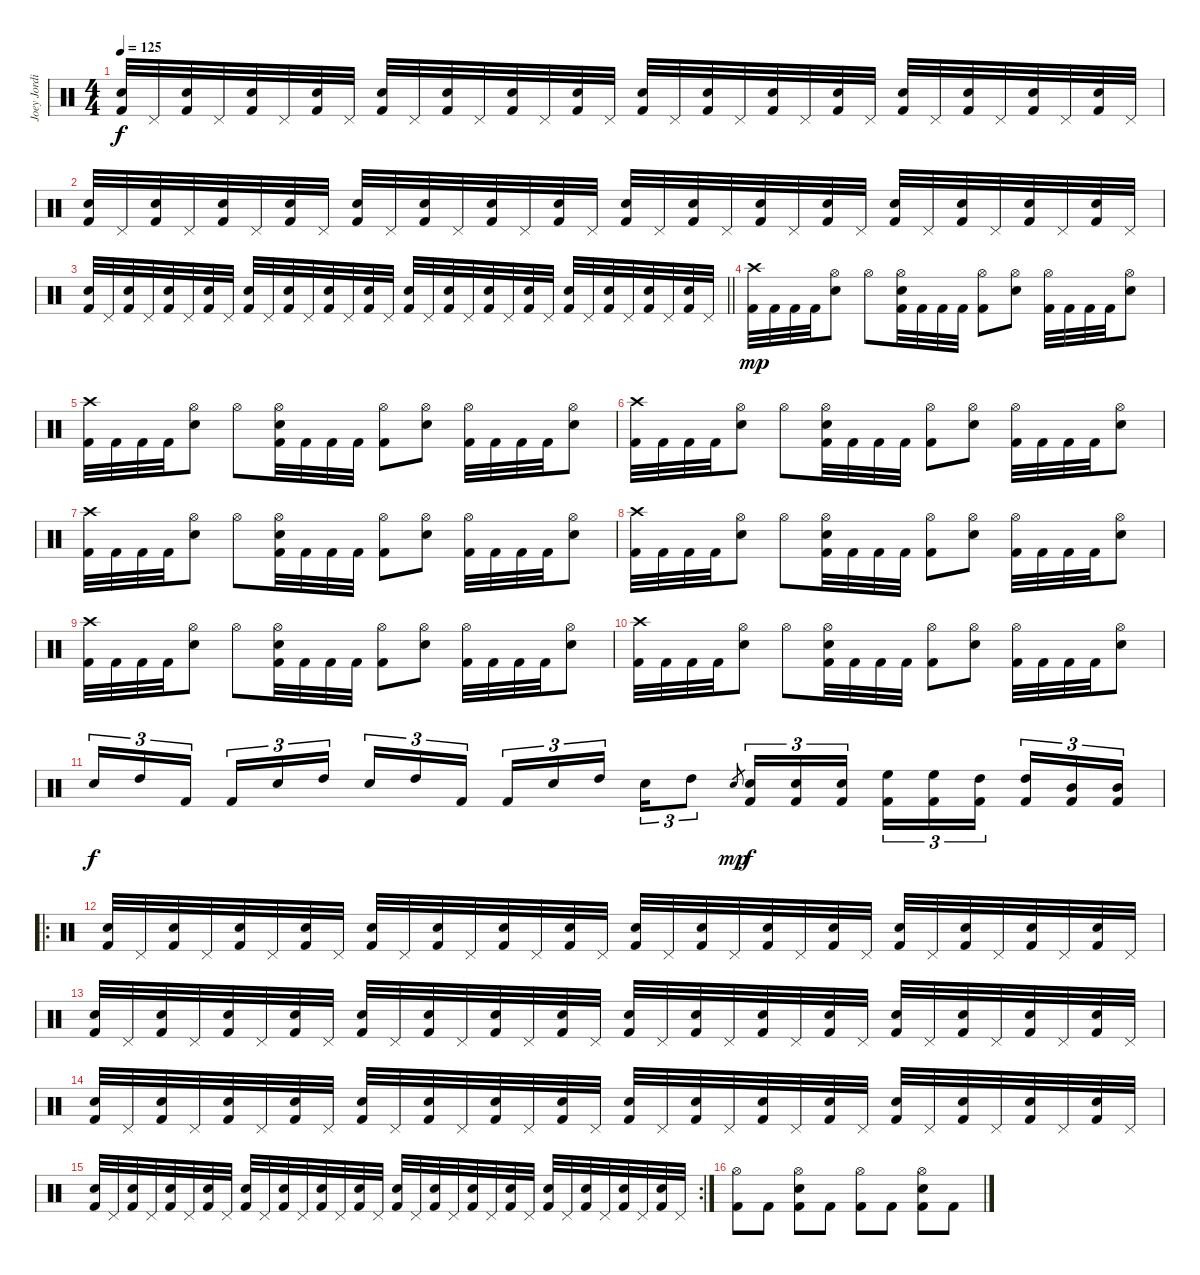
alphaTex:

\track ("Joey Jordison" "Joey Jordi") {instrument percussion}
\staff {score}
\articulation defaults
\ts (4 4)
\tempo 125
\clef neutral
\ks c
("Electric Snare (hit)" "Kick (hit) 2").32{dy f} "Pedal Hi-Hat (hit)".32 ("Electric Snare (hit)" "Kick (hit) 2").32 "Pedal Hi-Hat (hit)".32 ("Electric Snare (hit)" "Kick (hit) 2").32 "Pedal Hi-Hat (hit)".32 ("Electric Snare (hit)" "Kick (hit) 2").32 "Pedal Hi-Hat (hit)".32 ("Electric Snare (hit)" "Kick (hit) 2").32 "Pedal Hi-Hat (hit)".32 ("Electric Snare (hit)" "Kick (hit) 2").32 "Pedal Hi-Hat (hit)".32 ("Electric Snare (hit)" "Kick (hit) 2").32 "Pedal Hi-Hat (hit)".32 ("Electric Snare (hit)" "Kick (hit) 2").32 "Pedal Hi-Hat (hit)".32 ("Electric Snare (hit)" "Kick (hit) 2").32 "Pedal Hi-Hat (hit)".32 ("Electric Snare (hit)" "Kick (hit) 2").32 "Pedal Hi-Hat (hit)".32 ("Electric Snare (hit)" "Kick (hit) 2").32 "Pedal Hi-Hat (hit)".32 ("Electric Snare (hit)" "Kick (hit) 2").32 "Pedal Hi-Hat (hit)".32 ("Electric Snare (hit)" "Kick (hit) 2").32 "Pedal Hi-Hat (hit)".32 ("Electric Snare (hit)" "Kick (hit) 2").32 "Pedal Hi-Hat (hit)".32 ("Electric Snare (hit)" "Kick (hit) 2").32 "Pedal Hi-Hat (hit)".32 ("Electric Snare (hit)" "Kick (hit) 2").32 "Pedal Hi-Hat (hit)".32 |
("Electric Snare (hit)" "Kick (hit) 2").32 "Pedal Hi-Hat (hit)".32 ("Electric Snare (hit)" "Kick (hit) 2").32 "Pedal Hi-Hat (hit)".32 ("Electric Snare (hit)" "Kick (hit) 2").32 "Pedal Hi-Hat (hit)".32 ("Electric Snare (hit)" "Kick (hit) 2").32 "Pedal Hi-Hat (hit)".32 ("Electric Snare (hit)" "Kick (hit) 2").32 "Pedal Hi-Hat (hit)".32 ("Electric Snare (hit)" "Kick (hit) 2").32 "Pedal Hi-Hat (hit)".32 ("Electric Snare (hit)" "Kick (hit) 2").32 "Pedal Hi-Hat (hit)".32 ("Electric Snare (hit)" "Kick (hit) 2").32 "Pedal Hi-Hat (hit)".32 ("Electric Snare (hit)" "Kick (hit) 2").32 "Pedal Hi-Hat (hit)".32 ("Electric Snare (hit)" "Kick (hit) 2").32 "Pedal Hi-Hat (hit)".32 ("Electric Snare (hit)" "Kick (hit) 2").32 "Pedal Hi-Hat (hit)".32 ("Electric Snare (hit)" "Kick (hit) 2").32 "Pedal Hi-Hat (hit)".32 ("Electric Snare (hit)" "Kick (hit) 2").32 "Pedal Hi-Hat (hit)".32 ("Electric Snare (hit)" "Kick (hit) 2").32 "Pedal Hi-Hat (hit)".32 ("Electric Snare (hit)" "Kick (hit) 2").32 "Pedal Hi-Hat (hit)".32 ("Electric Snare (hit)" "Kick (hit) 2").32 "Pedal Hi-Hat (hit)".32 |
\barLineRight lightlight
("Electric Snare (hit)" "Kick (hit) 2").32 "Pedal Hi-Hat (hit)".32 ("Electric Snare (hit)" "Kick (hit) 2").32 "Pedal Hi-Hat (hit)".32 ("Electric Snare (hit)" "Kick (hit) 2").32 "Pedal Hi-Hat (hit)".32 ("Electric Snare (hit)" "Kick (hit) 2").32 "Pedal Hi-Hat (hit)".32 ("Electric Snare (hit)" "Kick (hit) 2").32 "Pedal Hi-Hat (hit)".32 ("Electric Snare (hit)" "Kick (hit) 2").32 "Pedal Hi-Hat (hit)".32 ("Electric Snare (hit)" "Kick (hit) 2").32 "Pedal Hi-Hat (hit)".32 ("Electric Snare (hit)" "Kick (hit) 2").32 "Pedal Hi-Hat (hit)".32 ("Electric Snare (hit)" "Kick (hit) 2").32 "Pedal Hi-Hat (hit)".32 ("Electric Snare (hit)" "Kick (hit) 2").32 "Pedal Hi-Hat (hit)".32 ("Electric Snare (hit)" "Kick (hit) 2").32 "Pedal Hi-Hat (hit)".32 ("Electric Snare (hit)" "Kick (hit) 2").32 "Pedal Hi-Hat (hit)".32 ("Electric Snare (hit)" "Kick (hit) 2").32 "Pedal Hi-Hat (hit)".32 ("Electric Snare (hit)" "Kick (hit) 2").32 "Pedal Hi-Hat (hit)".32 ("Electric Snare (hit)" "Kick (hit) 2").32 "Pedal Hi-Hat (hit)".32 ("Electric Snare (hit)" "Kick (hit) 2").32 "Pedal Hi-Hat (hit)".32 |
("Crash high (hit)" "Kick (hit) 2").32{dy mp} "Kick (hit) 2".32 "Kick (hit) 2".32 "Kick (hit) 2".32 ("Hi-Hat (open)" "Electric Snare (hit)").8 "Hi-Hat (open)".8 ("Hi-Hat (open)" "Electric Snare (hit)" "Kick (hit) 2").32 "Kick (hit) 2".32 "Kick (hit) 2".32 "Kick (hit) 2".32 ("Hi-Hat (open)" "Kick (hit) 2").8 ("Hi-Hat (open)" "Electric Snare (hit)").8 ("Hi-Hat (open)" "Kick (hit) 2").32 "Kick (hit) 2".32 "Kick (hit) 2".32 "Kick (hit) 2".32 ("Hi-Hat (open)" "Electric Snare (hit)").8 |
("Crash high (hit)" "Kick (hit) 2").32 "Kick (hit) 2".32 "Kick (hit) 2".32 "Kick (hit) 2".32 ("Hi-Hat (open)" "Electric Snare (hit)").8 "Hi-Hat (open)".8 ("Hi-Hat (open)" "Electric Snare (hit)" "Kick (hit) 2").32 "Kick (hit) 2".32 "Kick (hit) 2".32 "Kick (hit) 2".32 ("Hi-Hat (open)" "Kick (hit) 2").8 ("Hi-Hat (open)" "Electric Snare (hit)").8 ("Hi-Hat (open)" "Kick (hit) 2").32 "Kick (hit) 2".32 "Kick (hit) 2".32 "Kick (hit) 2".32 ("Hi-Hat (open)" "Electric Snare (hit)").8 |
("Crash high (hit)" "Kick (hit) 2").32 "Kick (hit) 2".32 "Kick (hit) 2".32 "Kick (hit) 2".32 ("Hi-Hat (open)" "Electric Snare (hit)").8 "Hi-Hat (open)".8 ("Hi-Hat (open)" "Electric Snare (hit)" "Kick (hit) 2").32 "Kick (hit) 2".32 "Kick (hit) 2".32 "Kick (hit) 2".32 ("Hi-Hat (open)" "Kick (hit) 2").8 ("Hi-Hat (open)" "Electric Snare (hit)").8 ("Hi-Hat (open)" "Kick (hit) 2").32 "Kick (hit) 2".32 "Kick (hit) 2".32 "Kick (hit) 2".32 ("Hi-Hat (open)" "Electric Snare (hit)").8 |
("Crash high (hit)" "Kick (hit) 2").32 "Kick (hit) 2".32 "Kick (hit) 2".32 "Kick (hit) 2".32 ("Hi-Hat (open)" "Electric Snare (hit)").8 "Hi-Hat (open)".8 ("Hi-Hat (open)" "Electric Snare (hit)" "Kick (hit) 2").32 "Kick (hit) 2".32 "Kick (hit) 2".32 "Kick (hit) 2".32 ("Hi-Hat (open)" "Kick (hit) 2").8 ("Hi-Hat (open)" "Electric Snare (hit)").8 ("Hi-Hat (open)" "Kick (hit) 2").32 "Kick (hit) 2".32 "Kick (hit) 2".32 "Kick (hit) 2".32 ("Hi-Hat (open)" "Electric Snare (hit)").8 |
("Crash high (hit)" "Kick (hit) 2").32 "Kick (hit) 2".32 "Kick (hit) 2".32 "Kick (hit) 2".32 ("Hi-Hat (open)" "Electric Snare (hit)").8 "Hi-Hat (open)".8 ("Hi-Hat (open)" "Electric Snare (hit)" "Kick (hit) 2").32 "Kick (hit) 2".32 "Kick (hit) 2".32 "Kick (hit) 2".32 ("Hi-Hat (open)" "Kick (hit) 2").8 ("Hi-Hat (open)" "Electric Snare (hit)").8 ("Hi-Hat (open)" "Kick (hit) 2").32 "Kick (hit) 2".32 "Kick (hit) 2".32 "Kick (hit) 2".32 ("Hi-Hat (open)" "Electric Snare (hit)").8 |
("Crash high (hit)" "Kick (hit) 2").32 "Kick (hit) 2".32 "Kick (hit) 2".32 "Kick (hit) 2".32 ("Hi-Hat (open)" "Electric Snare (hit)").8 "Hi-Hat (open)".8 ("Hi-Hat (open)" "Electric Snare (hit)" "Kick (hit) 2").32 "Kick (hit) 2".32 "Kick (hit) 2".32 "Kick (hit) 2".32 ("Hi-Hat (open)" "Kick (hit) 2").8 ("Hi-Hat (open)" "Electric Snare (hit)").8 ("Hi-Hat (open)" "Kick (hit) 2").32 "Kick (hit) 2".32 "Kick (hit) 2".32 "Kick (hit) 2".32 ("Hi-Hat (open)" "Electric Snare (hit)").8 |
("Crash high (hit)" "Kick (hit) 2").32 "Kick (hit) 2".32 "Kick (hit) 2".32 "Kick (hit) 2".32 ("Hi-Hat (open)" "Electric Snare (hit)").8 "Hi-Hat (open)".8 ("Hi-Hat (open)" "Electric Snare (hit)" "Kick (hit) 2").32 "Kick (hit) 2".32 "Kick (hit) 2".32 "Kick (hit) 2".32 ("Hi-Hat (open)" "Kick (hit) 2").8 ("Hi-Hat (open)" "Electric Snare (hit)").8 ("Hi-Hat (open)" "Kick (hit) 2").32 "Kick (hit) 2".32 "Kick (hit) 2".32 "Kick (hit) 2".32 ("Hi-Hat (open)" "Electric Snare (hit)").8 |
"Electric Snare (hit)".16{tu (3 2) dy f} "High Tom (hit)".16{tu (3 2)} "Kick (hit) 2".16{tu (3 2) beam splitsecondary} "Kick (hit) 2".16{tu (3 2)} "Electric Snare (hit)".16{tu (3 2)} "High Tom (hit)".16{tu (3 2)} "Electric Snare (hit)".16{tu (3 2)} "High Tom (hit)".16{tu (3 2)} "Kick (hit) 2".16{tu (3 2) beam splitsecondary} "Kick (hit) 2".16{tu (3 2)} "Electric Snare (hit)".16{tu (3 2)} "High Tom (hit)".16{tu (3 2)} "Electric Snare (hit)".16{tu (3 2)} "High Tom (hit)".8{tu (3 2)} "Electric Snare (hit)".8{gr dy mp} ("Electric Snare (hit)" "Kick (hit) 2").16{tu (3 2) dy f} ("Electric Snare (hit)" "Kick (hit) 2").16{tu (3 2)} ("Electric Snare (hit)" "Kick (hit) 2").16{tu (3 2)} ("High Floor Tom (hit)" "Kick (hit) 2").16{tu (3 2)} ("High Floor Tom (hit)" "Kick (hit) 2").16{tu (3 2)} ("High Tom (hit)" "Kick (hit) 2").16{tu (3 2) beam splitsecondary} ("High Tom (hit)" "Kick (hit) 2").16{tu (3 2)} ("Mid Tom (hit)" "Kick (hit) 2").16{tu (3 2)} ("Mid Tom (hit)" "Kick (hit) 2").16{tu (3 2)} |
\ro
("Electric Snare (hit)" "Kick (hit) 2").32 "Pedal Hi-Hat (hit)".32 ("Electric Snare (hit)" "Kick (hit) 2").32 "Pedal Hi-Hat (hit)".32 ("Electric Snare (hit)" "Kick (hit) 2").32 "Pedal Hi-Hat (hit)".32 ("Electric Snare (hit)" "Kick (hit) 2").32 "Pedal Hi-Hat (hit)".32 ("Electric Snare (hit)" "Kick (hit) 2").32 "Pedal Hi-Hat (hit)".32 ("Electric Snare (hit)" "Kick (hit) 2").32 "Pedal Hi-Hat (hit)".32 ("Electric Snare (hit)" "Kick (hit) 2").32 "Pedal Hi-Hat (hit)".32 ("Electric Snare (hit)" "Kick (hit) 2").32 "Pedal Hi-Hat (hit)".32 ("Electric Snare (hit)" "Kick (hit) 2").32 "Pedal Hi-Hat (hit)".32 ("Electric Snare (hit)" "Kick (hit) 2").32 "Pedal Hi-Hat (hit)".32 ("Electric Snare (hit)" "Kick (hit) 2").32 "Pedal Hi-Hat (hit)".32 ("Electric Snare (hit)" "Kick (hit) 2").32 "Pedal Hi-Hat (hit)".32 ("Electric Snare (hit)" "Kick (hit) 2").32 "Pedal Hi-Hat (hit)".32 ("Electric Snare (hit)" "Kick (hit) 2").32 "Pedal Hi-Hat (hit)".32 ("Electric Snare (hit)" "Kick (hit) 2").32 "Pedal Hi-Hat (hit)".32 ("Electric Snare (hit)" "Kick (hit) 2").32 "Pedal Hi-Hat (hit)".32 |
("Electric Snare (hit)" "Kick (hit) 2").32 "Pedal Hi-Hat (hit)".32 ("Electric Snare (hit)" "Kick (hit) 2").32 "Pedal Hi-Hat (hit)".32 ("Electric Snare (hit)" "Kick (hit) 2").32 "Pedal Hi-Hat (hit)".32 ("Electric Snare (hit)" "Kick (hit) 2").32 "Pedal Hi-Hat (hit)".32 ("Electric Snare (hit)" "Kick (hit) 2").32 "Pedal Hi-Hat (hit)".32 ("Electric Snare (hit)" "Kick (hit) 2").32 "Pedal Hi-Hat (hit)".32 ("Electric Snare (hit)" "Kick (hit) 2").32 "Pedal Hi-Hat (hit)".32 ("Electric Snare (hit)" "Kick (hit) 2").32 "Pedal Hi-Hat (hit)".32 ("Electric Snare (hit)" "Kick (hit) 2").32 "Pedal Hi-Hat (hit)".32 ("Electric Snare (hit)" "Kick (hit) 2").32 "Pedal Hi-Hat (hit)".32 ("Electric Snare (hit)" "Kick (hit) 2").32 "Pedal Hi-Hat (hit)".32 ("Electric Snare (hit)" "Kick (hit) 2").32 "Pedal Hi-Hat (hit)".32 ("Electric Snare (hit)" "Kick (hit) 2").32 "Pedal Hi-Hat (hit)".32 ("Electric Snare (hit)" "Kick (hit) 2").32 "Pedal Hi-Hat (hit)".32 ("Electric Snare (hit)" "Kick (hit) 2").32 "Pedal Hi-Hat (hit)".32 ("Electric Snare (hit)" "Kick (hit) 2").32 "Pedal Hi-Hat (hit)".32 |
("Electric Snare (hit)" "Kick (hit) 2").32 "Pedal Hi-Hat (hit)".32 ("Electric Snare (hit)" "Kick (hit) 2").32 "Pedal Hi-Hat (hit)".32 ("Electric Snare (hit)" "Kick (hit) 2").32 "Pedal Hi-Hat (hit)".32 ("Electric Snare (hit)" "Kick (hit) 2").32 "Pedal Hi-Hat (hit)".32 ("Electric Snare (hit)" "Kick (hit) 2").32 "Pedal Hi-Hat (hit)".32 ("Electric Snare (hit)" "Kick (hit) 2").32 "Pedal Hi-Hat (hit)".32 ("Electric Snare (hit)" "Kick (hit) 2").32 "Pedal Hi-Hat (hit)".32 ("Electric Snare (hit)" "Kick (hit) 2").32 "Pedal Hi-Hat (hit)".32 ("Electric Snare (hit)" "Kick (hit) 2").32 "Pedal Hi-Hat (hit)".32 ("Electric Snare (hit)" "Kick (hit) 2").32 "Pedal Hi-Hat (hit)".32 ("Electric Snare (hit)" "Kick (hit) 2").32 "Pedal Hi-Hat (hit)".32 ("Electric Snare (hit)" "Kick (hit) 2").32 "Pedal Hi-Hat (hit)".32 ("Electric Snare (hit)" "Kick (hit) 2").32 "Pedal Hi-Hat (hit)".32 ("Electric Snare (hit)" "Kick (hit) 2").32 "Pedal Hi-Hat (hit)".32 ("Electric Snare (hit)" "Kick (hit) 2").32 "Pedal Hi-Hat (hit)".32 ("Electric Snare (hit)" "Kick (hit) 2").32 "Pedal Hi-Hat (hit)".32 |
\rc 2
("Electric Snare (hit)" "Kick (hit) 2").32 "Pedal Hi-Hat (hit)".32 ("Electric Snare (hit)" "Kick (hit) 2").32 "Pedal Hi-Hat (hit)".32 ("Electric Snare (hit)" "Kick (hit) 2").32 "Pedal Hi-Hat (hit)".32 ("Electric Snare (hit)" "Kick (hit) 2").32 "Pedal Hi-Hat (hit)".32 ("Electric Snare (hit)" "Kick (hit) 2").32 "Pedal Hi-Hat (hit)".32 ("Electric Snare (hit)" "Kick (hit) 2").32 "Pedal Hi-Hat (hit)".32 ("Electric Snare (hit)" "Kick (hit) 2").32 "Pedal Hi-Hat (hit)".32 ("Electric Snare (hit)" "Kick (hit) 2").32 "Pedal Hi-Hat (hit)".32 ("Electric Snare (hit)" "Kick (hit) 2").32 "Pedal Hi-Hat (hit)".32 ("Electric Snare (hit)" "Kick (hit) 2").32 "Pedal Hi-Hat (hit)".32 ("Electric Snare (hit)" "Kick (hit) 2").32 "Pedal Hi-Hat (hit)".32 ("Electric Snare (hit)" "Kick (hit) 2").32 "Pedal Hi-Hat (hit)".32 ("Electric Snare (hit)" "Kick (hit) 2").32 "Pedal Hi-Hat (hit)".32 ("Electric Snare (hit)" "Kick (hit) 2").32 "Pedal Hi-Hat (hit)".32 ("Electric Snare (hit)" "Kick (hit) 2").32 "Pedal Hi-Hat (hit)".32 ("Electric Snare (hit)" "Kick (hit) 2").32 "Pedal Hi-Hat (hit)".32 |
("Hi-Hat (open)" "Kick (hit) 2").8 "Kick (hit) 2".8 ("Hi-Hat (open)" "Electric Snare (hit)" "Kick (hit) 2").8 "Kick (hit) 2".8 ("Hi-Hat (open)" "Kick (hit) 2").8 "Kick (hit) 2".8 ("Hi-Hat (open)" "Electric Snare (hit)" "Kick (hit) 2").8 "Kick (hit) 2".8
